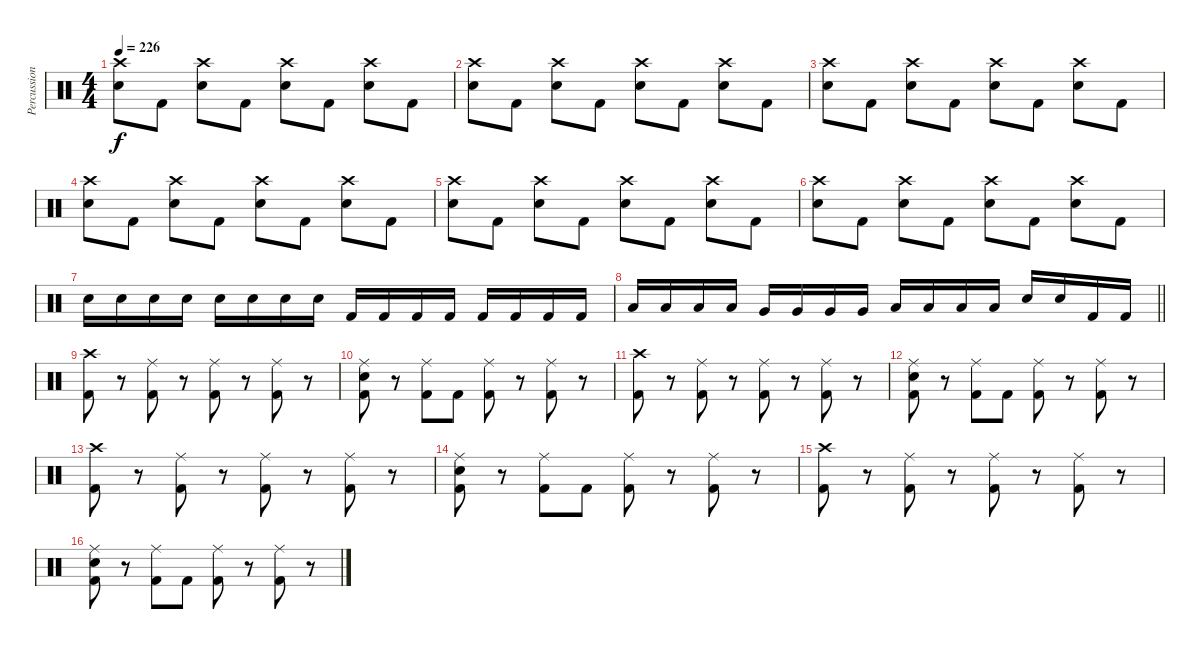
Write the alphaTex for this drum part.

\track ("Percussion" "Percussion") {instrument percussion}
\staff {score}
\articulation defaults
\ts (4 4)
\tempo 226
\clef neutral
\ks c
("Crash high (hit)" "Snare (hit) 2").8{dy f} "Kick (hit) 2".8 ("Crash high (hit)" "Snare (hit) 2").8 "Kick (hit) 2".8 ("Crash high (hit)" "Snare (hit) 2").8 "Kick (hit) 2".8 ("Crash high (hit)" "Snare (hit) 2").8 "Kick (hit) 2".8 |
("Crash high (hit)" "Snare (hit) 2").8 "Kick (hit) 2".8 ("Crash high (hit)" "Snare (hit) 2").8 "Kick (hit) 2".8 ("Crash high (hit)" "Snare (hit) 2").8 "Kick (hit) 2".8 ("Crash high (hit)" "Snare (hit) 2").8 "Kick (hit) 2".8 |
("Crash high (hit)" "Snare (hit) 2").8 "Kick (hit) 2".8 ("Crash high (hit)" "Snare (hit) 2").8 "Kick (hit) 2".8 ("Crash high (hit)" "Snare (hit) 2").8 "Kick (hit) 2".8 ("Crash high (hit)" "Snare (hit) 2").8 "Kick (hit) 2".8 |
("Crash high (hit)" "Snare (hit) 2").8 "Kick (hit) 2".8 ("Crash high (hit)" "Snare (hit) 2").8 "Kick (hit) 2".8 ("Crash high (hit)" "Snare (hit) 2").8 "Kick (hit) 2".8 ("Crash high (hit)" "Snare (hit) 2").8 "Kick (hit) 2".8 |
("Crash high (hit)" "Snare (hit) 2").8 "Kick (hit) 2".8 ("Crash high (hit)" "Snare (hit) 2").8 "Kick (hit) 2".8 ("Crash high (hit)" "Snare (hit) 2").8 "Kick (hit) 2".8 ("Crash high (hit)" "Snare (hit) 2").8 "Kick (hit) 2".8 |
("Crash high (hit)" "Snare (hit) 2").8 "Kick (hit) 2".8 ("Crash high (hit)" "Snare (hit) 2").8 "Kick (hit) 2".8 ("Crash high (hit)" "Snare (hit) 2").8 "Kick (hit) 2".8 ("Crash high (hit)" "Snare (hit) 2").8 "Kick (hit) 2".8 |
"Snare (hit) 2".16 "Snare (hit) 2".16 "Snare (hit) 2".16 "Snare (hit) 2".16 "Snare (hit) 2".16 "Snare (hit) 2".16 "Snare (hit) 2".16 "Snare (hit) 2".16 "Kick (hit) 2".16 "Kick (hit) 2".16 "Kick (hit) 2".16 "Kick (hit) 2".16 "Kick (hit) 2".16 "Kick (hit) 2".16 "Kick (hit) 2".16 "Kick (hit) 2".16 |
\barLineRight lightlight "Low Tom (hit)".16 "Low Tom (hit)".16 "Low Tom (hit)".16 "Low Tom (hit)".16 "Very Low Tom (hit)".16 "Very Low Tom (hit)".16 "Very Low Tom (hit)".16 "Very Low Tom (hit)".16 "Low Floor Tom (hit)".16 "Low Floor Tom (hit)".16 "Low Floor Tom (hit)".16 "Low Floor Tom (hit)".16 "Snare (hit) 2".16 "Snare (hit) 2".16 "Kick (hit) 2".16 "Kick (hit) 2".16
|
\section ("" "")
("Crash high (hit)" "Kick (hit) 2").8 r.8 ("Ride (middle)" "Kick (hit) 2").8 r.8 ("Ride (middle)" "Kick (hit) 2").8 r.8 ("Ride (middle)" "Kick (hit) 2").8 r.8 |
("Ride (middle)" "Snare (hit) 2" "Kick (hit) 2").8 r.8 ("Ride (middle)" "Kick (hit) 2").8 "Kick (hit) 2".8 ("Ride (middle)" "Kick (hit) 2").8 r.8 ("Ride (middle)" "Kick (hit) 2").8 r.8 |
("Crash high (hit)" "Kick (hit) 2").8 r.8 ("Ride (middle)" "Kick (hit) 2").8 r.8 ("Ride (middle)" "Kick (hit) 2").8 r.8 ("Ride (middle)" "Kick (hit) 2").8 r.8 |
("Ride (middle)" "Snare (hit) 2" "Kick (hit) 2").8 r.8 ("Ride (middle)" "Kick (hit) 2").8 "Kick (hit) 2".8 ("Ride (middle)" "Kick (hit) 2").8 r.8 ("Ride (middle)" "Kick (hit) 2").8 r.8 |
("Crash high (hit)" "Kick (hit) 2").8 r.8 ("Ride (middle)" "Kick (hit) 2").8 r.8 ("Ride (middle)" "Kick (hit) 2").8 r.8 ("Ride (middle)" "Kick (hit) 2").8 r.8 |
("Ride (middle)" "Snare (hit) 2" "Kick (hit) 2").8 r.8 ("Ride (middle)" "Kick (hit) 2").8 "Kick (hit) 2".8 ("Ride (middle)" "Kick (hit) 2").8 r.8 ("Ride (middle)" "Kick (hit) 2").8 r.8 |
("Crash high (hit)" "Kick (hit) 2").8 r.8 ("Ride (middle)" "Kick (hit) 2").8 r.8 ("Ride (middle)" "Kick (hit) 2").8 r.8 ("Ride (middle)" "Kick (hit) 2").8 r.8 |
("Ride (middle)" "Snare (hit) 2" "Kick (hit) 2").8 r.8 ("Ride (middle)" "Kick (hit) 2").8 "Kick (hit) 2".8 ("Ride (middle)" "Kick (hit) 2").8 r.8 ("Ride (middle)" "Kick (hit) 2").8 r.8
